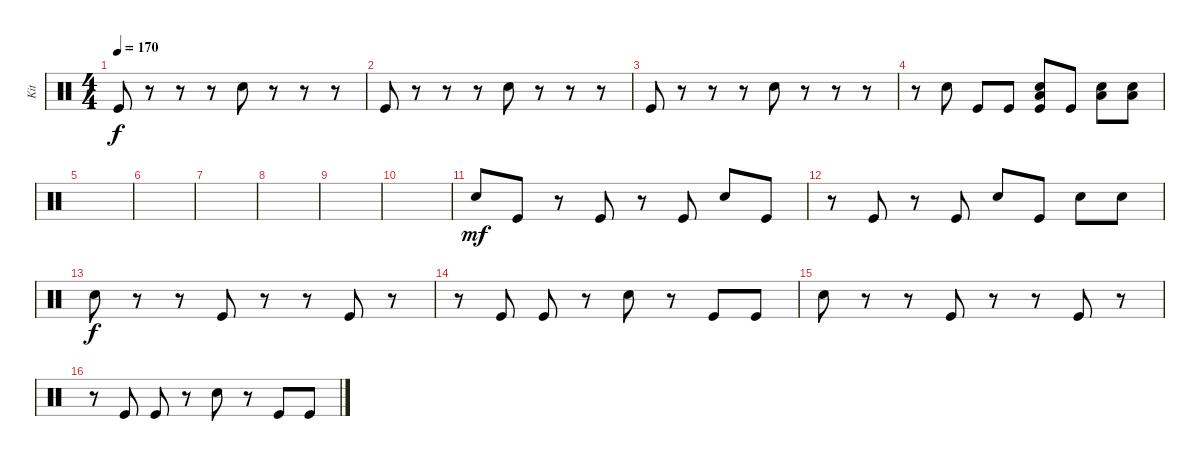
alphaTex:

\track ("Kit" "Kit") {instrument percussion}
\staff {score}
\articulation defaults
\ts (4 4)
\tempo 170
\clef neutral
\ks c "Kick (hit)".8{dy f}
r.8 r.8 r.8 "Snare (hit) 2".8 r.8 r.8 r.8 |
"Kick (hit)".8 r.8 r.8 r.8 "Snare (hit) 2".8 r.8 r.8 r.8 |
"Kick (hit)".8 r.8 r.8 r.8 "Snare (hit) 2".8 r.8 r.8 r.8 |
r.8 "Snare (hit) 2".8 "Kick (hit)".8 "Kick (hit)".8 ("Snare (hit) 2" "Kick (hit)" "Low Floor Tom (hit)").8 "Kick (hit)".8 ("Snare (hit) 2" "Low Floor Tom (hit)").8 ("Snare (hit) 2" "Low Floor Tom (hit)").8 |
|
|
|
|
|
|
"Snare (hit) 2".8{dy mf} "Kick (hit)".8 r.8 "Kick (hit)".8 r.8 "Kick (hit)".8 "Snare (hit) 2".8 "Kick (hit)".8 |
r.8 "Kick (hit)".8 r.8 "Kick (hit)".8 "Snare (hit) 2".8 "Kick (hit)".8 "Snare (hit) 2".8 "Snare (hit) 2".8 |
"Snare (hit) 2".8{dy f} r.8 r.8 "Kick (hit)".8 r.8 r.8 "Kick (hit)".8 r.8 |
r.8 "Kick (hit)".8 "Kick (hit)".8 r.8 "Snare (hit) 2".8 r.8 "Kick (hit)".8 "Kick (hit)".8 |
"Snare (hit) 2".8 r.8 r.8 "Kick (hit)".8 r.8 r.8 "Kick (hit)".8 r.8 |
r.8 "Kick (hit)".8 "Kick (hit)".8 r.8 "Snare (hit) 2".8 r.8 "Kick (hit)".8 "Kick (hit)".8
